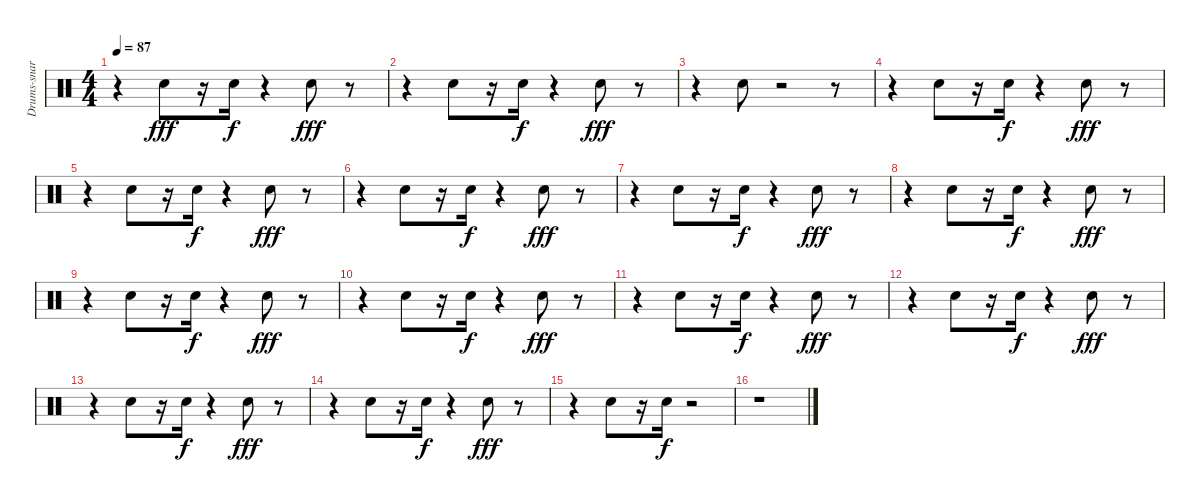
\track ("Drums-snare drum 1" "Drums-snar") {instrument percussion}
\staff {score}
\articulation defaults
\ts (4 4)
\tempo 87
\clef neutral
\ks c
r.4{dy fff} "Snare (hit) 2".8 r.16 "Snare (hit) 2".16{dy f} r.4 "Snare (hit) 2".8{dy fff} r.8 |
r.4 "Snare (hit) 2".8 r.16 "Snare (hit) 2".16{dy f} r.4 "Snare (hit) 2".8{dy fff} r.8 |
r.4 "Snare (hit) 2".8 r.2 r.8 |
r.4 "Snare (hit) 2".8 r.16 "Snare (hit) 2".16{dy f} r.4 "Snare (hit) 2".8{dy fff} r.8 |
r.4 "Snare (hit) 2".8 r.16 "Snare (hit) 2".16{dy f} r.4 "Snare (hit) 2".8{dy fff} r.8 |
r.4 "Snare (hit) 2".8 r.16 "Snare (hit) 2".16{dy f} r.4 "Snare (hit) 2".8{dy fff} r.8 |
r.4 "Snare (hit) 2".8 r.16 "Snare (hit) 2".16{dy f} r.4 "Snare (hit) 2".8{dy fff} r.8 |
r.4 "Snare (hit) 2".8 r.16 "Snare (hit) 2".16{dy f} r.4 "Snare (hit) 2".8{dy fff} r.8 |
r.4 "Snare (hit) 2".8 r.16 "Snare (hit) 2".16{dy f} r.4 "Snare (hit) 2".8{dy fff} r.8 |
r.4 "Snare (hit) 2".8 r.16 "Snare (hit) 2".16{dy f} r.4 "Snare (hit) 2".8{dy fff} r.8 |
r.4 "Snare (hit) 2".8 r.16 "Snare (hit) 2".16{dy f} r.4 "Snare (hit) 2".8{dy fff} r.8 |
r.4 "Snare (hit) 2".8 r.16 "Snare (hit) 2".16{dy f} r.4 "Snare (hit) 2".8{dy fff} r.8 |
r.4 "Snare (hit) 2".8 r.16 "Snare (hit) 2".16{dy f} r.4 "Snare (hit) 2".8{dy fff} r.8 |
r.4 "Snare (hit) 2".8 r.16 "Snare (hit) 2".16{dy f} r.4 "Snare (hit) 2".8{dy fff} r.8 |
r.4 "Snare (hit) 2".8 r.16 "Snare (hit) 2".16{dy f} r.2 |
r.1
